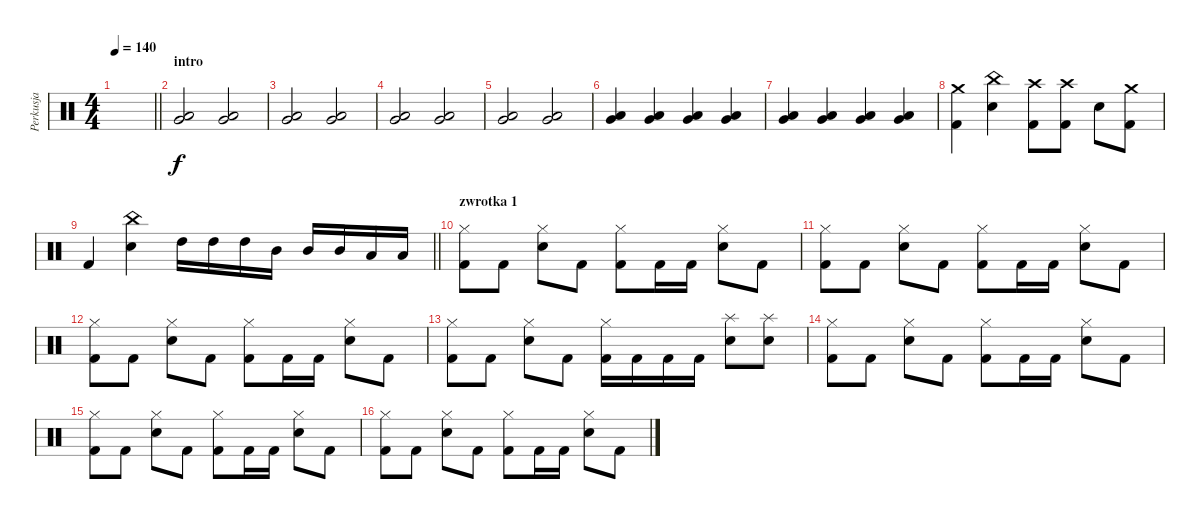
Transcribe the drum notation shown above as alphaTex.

\track ("Perkusja" "Perkusja") {instrument percussion}
\staff {score}
\articulation defaults
\ts (4 4)
\tempo 140
\clef neutral
\barLineRight lightlight
\ks c
|
\section ("" "intro")
("Very Low Tom (hit)" "Low Floor Tom (hit)").2 ("Very Low Tom (hit)" "Low Floor Tom (hit)").2 |
("Very Low Tom (hit)" "Low Floor Tom (hit)").2 ("Very Low Tom (hit)" "Low Floor Tom (hit)").2 |
("Very Low Tom (hit)" "Low Floor Tom (hit)").2 ("Very Low Tom (hit)" "Low Floor Tom (hit)").2 |
("Very Low Tom (hit)" "Low Floor Tom (hit)").2 ("Very Low Tom (hit)" "Low Floor Tom (hit)").2 |
("Very Low Tom (hit)" "Low Floor Tom (hit)").4 ("Very Low Tom (hit)" "Low Floor Tom (hit)").4 ("Very Low Tom (hit)" "Low Floor Tom (hit)").4 ("Very Low Tom (hit)" "Low Floor Tom (hit)").4 |
("Very Low Tom (hit)" "Low Floor Tom (hit)").4 ("Very Low Tom (hit)" "Low Floor Tom (hit)").4 ("Very Low Tom (hit)" "Low Floor Tom (hit)").4 ("Very Low Tom (hit)" "Low Floor Tom (hit)").4 |
("Kick (hit) 2" "Crash medium (hit)").4 ("Snare (hit) 2" "China (hit)").4 ("Kick (hit) 2" "Crash high (hit)").8 ("Kick (hit) 2" "Crash high (hit)").8 "Snare (hit) 2".8 ("Kick (hit) 2" "Crash medium (hit)").8 |
\barLineRight lightlight "Kick (hit) 2".4
("Snare (hit) 2" "China (hit)").4 "High Tom (hit)".16 "High Tom (hit)".16 "High Tom (hit)".16 "Mid Tom (hit)".16 "Mid Tom (hit)".16 "Mid Tom (hit)".16 "Low Tom (hit)".16 "Low Tom (hit)".16 |
\section ("" "zwrotka 1")
("Hi-Hat (closed)" "Kick (hit) 2").8 "Kick (hit) 2".8 ("Hi-Hat (closed)" "Snare (hit) 2").8 "Kick (hit) 2".8 ("Hi-Hat (closed)" "Kick (hit) 2").8 "Kick (hit) 2".16 "Kick (hit) 2".16 ("Hi-Hat (closed)" "Snare (hit) 2").8 "Kick (hit) 2".8 |
("Hi-Hat (closed)" "Kick (hit) 2").8 "Kick (hit) 2".8 ("Hi-Hat (closed)" "Snare (hit) 2").8 "Kick (hit) 2".8 ("Hi-Hat (closed)" "Kick (hit) 2").8 "Kick (hit) 2".16 "Kick (hit) 2".16 ("Hi-Hat (closed)" "Snare (hit) 2").8 "Kick (hit) 2".8 |
("Hi-Hat (closed)" "Kick (hit) 2").8 "Kick (hit) 2".8 ("Hi-Hat (closed)" "Snare (hit) 2").8 "Kick (hit) 2".8 ("Hi-Hat (closed)" "Kick (hit) 2").8 "Kick (hit) 2".16 "Kick (hit) 2".16 ("Hi-Hat (closed)" "Snare (hit) 2").8 "Kick (hit) 2".8 |
("Hi-Hat (closed)" "Kick (hit) 2").8 "Kick (hit) 2".8 ("Hi-Hat (closed)" "Snare (hit) 2").8 "Kick (hit) 2".8 ("Hi-Hat (closed)" "Kick (hit) 2").16 "Kick (hit) 2".16 "Kick (hit) 2".16 "Kick (hit) 2".16 ("Splash (hit)" "Snare (hit) 2").8 ("Splash (hit)" "Snare (hit) 2").8 |
("Hi-Hat (closed)" "Kick (hit) 2").8 "Kick (hit) 2".8 ("Hi-Hat (closed)" "Snare (hit) 2").8 "Kick (hit) 2".8 ("Hi-Hat (closed)" "Kick (hit) 2").8 "Kick (hit) 2".16 "Kick (hit) 2".16 ("Hi-Hat (closed)" "Snare (hit) 2").8 "Kick (hit) 2".8 |
("Hi-Hat (closed)" "Kick (hit) 2").8 "Kick (hit) 2".8 ("Hi-Hat (closed)" "Snare (hit) 2").8 "Kick (hit) 2".8 ("Hi-Hat (closed)" "Kick (hit) 2").8 "Kick (hit) 2".16 "Kick (hit) 2".16 ("Hi-Hat (closed)" "Snare (hit) 2").8 "Kick (hit) 2".8 |
("Hi-Hat (closed)" "Kick (hit) 2").8 "Kick (hit) 2".8 ("Hi-Hat (closed)" "Snare (hit) 2").8 "Kick (hit) 2".8 ("Hi-Hat (closed)" "Kick (hit) 2").8 "Kick (hit) 2".16 "Kick (hit) 2".16 ("Hi-Hat (closed)" "Snare (hit) 2").8 "Kick (hit) 2".8
